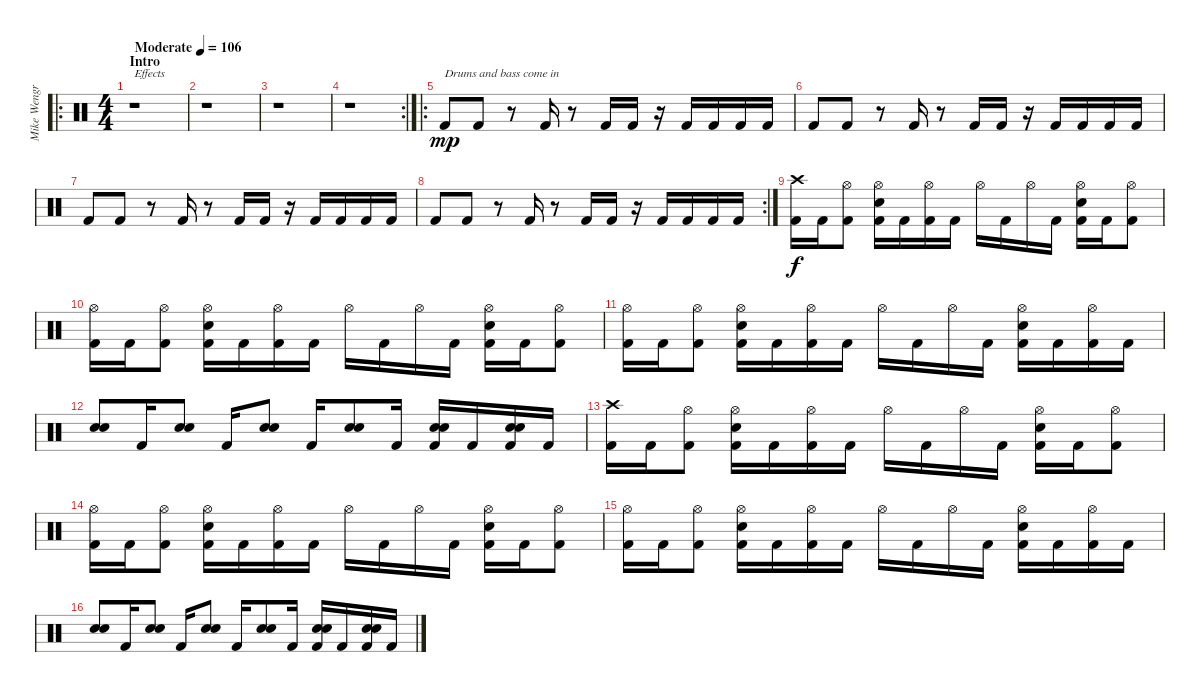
\track ("Mike Wengren" "Mike Wengr") {instrument percussion}
\staff {score}
\articulation defaults
\ro
\ts (4 4)
\section ("" "Intro")
\tempo (106 "Moderate")
\clef neutral
\ks c
r.1{txt "Effects" dy mp} |
r.1 |
r.1 |
\rc 2
r.1 |
\ro "Kick (hit) 2".8{txt "Drums and bass come in"} "Kick (hit) 2".8
r.8 "Kick (hit) 2".16 r.8 "Kick (hit) 2".16 "Kick (hit) 2".16 r.16 "Kick (hit) 2".16 "Kick (hit) 2".16 "Kick (hit) 2".16 "Kick (hit) 2".16 |
"Kick (hit) 2".8 "Kick (hit) 2".8 r.8 "Kick (hit) 2".16 r.8 "Kick (hit) 2".16 "Kick (hit) 2".16 r.16 "Kick (hit) 2".16 "Kick (hit) 2".16 "Kick (hit) 2".16 "Kick (hit) 2".16 |
"Kick (hit) 2".8 "Kick (hit) 2".8 r.8 "Kick (hit) 2".16 r.8 "Kick (hit) 2".16 "Kick (hit) 2".16 r.16 "Kick (hit) 2".16 "Kick (hit) 2".16 "Kick (hit) 2".16 "Kick (hit) 2".16 |
\rc 2 "Kick (hit) 2".8 "Kick (hit) 2".8
r.8 "Kick (hit) 2".16 r.8 "Kick (hit) 2".16 "Kick (hit) 2".16 r.16 "Kick (hit) 2".16 "Kick (hit) 2".16 "Kick (hit) 2".16 "Kick (hit) 2".16 |
("Crash high (hit)" "Kick (hit) 2").16{dy f} "Kick (hit) 2".16 ("Hi-Hat (open)" "Kick (hit) 2").8 ("Hi-Hat (open)" "Snare (hit) 2" "Kick (hit) 2").16 "Kick (hit) 2".16 ("Hi-Hat (open)" "Kick (hit) 2").16 "Kick (hit) 2".16 "Hi-Hat (open)".16 "Kick (hit) 2".16 "Hi-Hat (open)".16 "Kick (hit) 2".16 ("Hi-Hat (open)" "Snare (hit) 2" "Kick (hit) 2").16 "Kick (hit) 2".16 ("Hi-Hat (open)" "Kick (hit) 2").8 |
("Hi-Hat (open)" "Kick (hit) 2").16 "Kick (hit) 2".16 ("Hi-Hat (open)" "Kick (hit) 2").8 ("Hi-Hat (open)" "Snare (hit) 2" "Kick (hit) 2").16 "Kick (hit) 2".16 ("Hi-Hat (open)" "Kick (hit) 2").16 "Kick (hit) 2".16 "Hi-Hat (open)".16 "Kick (hit) 2".16 "Hi-Hat (open)".16 "Kick (hit) 2".16 ("Hi-Hat (open)" "Snare (hit) 2" "Kick (hit) 2").16 "Kick (hit) 2".16 ("Hi-Hat (open)" "Kick (hit) 2").8 |
("Hi-Hat (open)" "Kick (hit) 2").16 "Kick (hit) 2".16 ("Hi-Hat (open)" "Kick (hit) 2").8 ("Hi-Hat (open)" "Snare (hit) 2" "Kick (hit) 2").16 "Kick (hit) 2".16 ("Hi-Hat (open)" "Kick (hit) 2").16 "Kick (hit) 2".16 "Hi-Hat (open)".16 "Kick (hit) 2".16 "Hi-Hat (open)".16 "Kick (hit) 2".16 ("Hi-Hat (open)" "Snare (hit) 2" "Kick (hit) 2").16 "Kick (hit) 2".16 ("Hi-Hat (open)" "Kick (hit) 2").16 "Kick (hit) 2".16 |
("Snare (hit) 2" "Snare (hit) 2").8 "Kick (hit) 2".16 ("Snare (hit) 2" "Snare (hit) 2").8 "Kick (hit) 2".16 ("Snare (hit) 2" "Snare (hit) 2").8 "Kick (hit) 2".16 ("Snare (hit) 2" "Snare (hit) 2").8 "Kick (hit) 2".16 ("Snare (hit) 2" "Snare (hit) 2" "Kick (hit) 2").16 "Kick (hit) 2".16 ("Snare (hit) 2" "Snare (hit) 2" "Kick (hit) 2").16 "Kick (hit) 2".16 |
("Crash high (hit)" "Kick (hit) 2").16 "Kick (hit) 2".16 ("Hi-Hat (open)" "Kick (hit) 2").8 ("Hi-Hat (open)" "Snare (hit) 2" "Kick (hit) 2").16 "Kick (hit) 2".16 ("Hi-Hat (open)" "Kick (hit) 2").16 "Kick (hit) 2".16 "Hi-Hat (open)".16 "Kick (hit) 2".16 "Hi-Hat (open)".16 "Kick (hit) 2".16 ("Hi-Hat (open)" "Snare (hit) 2" "Kick (hit) 2").16 "Kick (hit) 2".16 ("Hi-Hat (open)" "Kick (hit) 2").8 |
("Hi-Hat (open)" "Kick (hit) 2").16 "Kick (hit) 2".16 ("Hi-Hat (open)" "Kick (hit) 2").8 ("Hi-Hat (open)" "Snare (hit) 2" "Kick (hit) 2").16 "Kick (hit) 2".16 ("Hi-Hat (open)" "Kick (hit) 2").16 "Kick (hit) 2".16 "Hi-Hat (open)".16 "Kick (hit) 2".16 "Hi-Hat (open)".16 "Kick (hit) 2".16 ("Hi-Hat (open)" "Snare (hit) 2" "Kick (hit) 2").16 "Kick (hit) 2".16 ("Hi-Hat (open)" "Kick (hit) 2").8 |
("Hi-Hat (open)" "Kick (hit) 2").16 "Kick (hit) 2".16 ("Hi-Hat (open)" "Kick (hit) 2").8 ("Hi-Hat (open)" "Snare (hit) 2" "Kick (hit) 2").16 "Kick (hit) 2".16 ("Hi-Hat (open)" "Kick (hit) 2").16 "Kick (hit) 2".16 "Hi-Hat (open)".16 "Kick (hit) 2".16 "Hi-Hat (open)".16 "Kick (hit) 2".16 ("Hi-Hat (open)" "Snare (hit) 2" "Kick (hit) 2").16 "Kick (hit) 2".16 ("Hi-Hat (open)" "Kick (hit) 2").16 "Kick (hit) 2".16 |
("Snare (hit) 2" "Snare (hit) 2").8 "Kick (hit) 2".16 ("Snare (hit) 2" "Snare (hit) 2").8 "Kick (hit) 2".16 ("Snare (hit) 2" "Snare (hit) 2").8 "Kick (hit) 2".16 ("Snare (hit) 2" "Snare (hit) 2").8 "Kick (hit) 2".16 ("Snare (hit) 2" "Snare (hit) 2" "Kick (hit) 2").16 "Kick (hit) 2".16 ("Snare (hit) 2" "Snare (hit) 2" "Kick (hit) 2").16 "Kick (hit) 2".16
